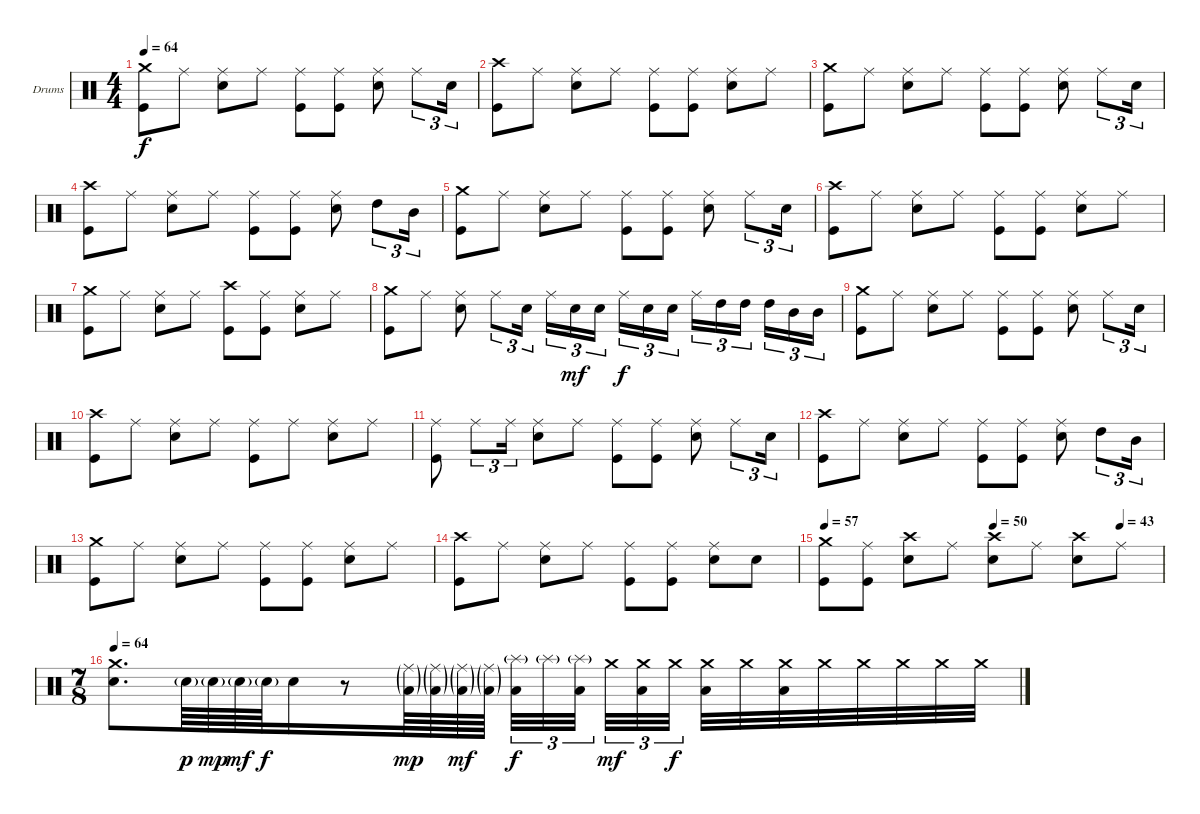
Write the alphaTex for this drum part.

\bracketExtendMode groupsimilarinstruments
\firstSystemTrackNameOrientation horizontal
\otherSystemsTrackNameOrientation horizontal
\track ("Drumkit" "Drums") {instrument percussion}
\staff {score}
\articulation defaults
\ts (4 4)
\tempo 64
\clef neutral
\ks c
("Crash medium (hit)" "Kick (hit)").8{dy f} "Ride (middle)".8 ("Ride (middle)" "Snare (hit) 2").8 "Ride (middle)".8 ("Ride (middle)" "Kick (hit)").8 ("Ride (middle)" "Kick (hit)").8 ("Ride (middle)" "Snare (hit) 2").8 "Ride (middle)".8{tu (3 2)} "Snare (hit) 2".16{tu (3 2)} |
("Crash high (hit)" "Kick (hit)").8 "Ride (middle)".8 ("Ride (middle)" "Snare (hit) 2").8 "Ride (middle)".8 ("Ride (middle)" "Kick (hit)").8 ("Ride (middle)" "Kick (hit)").8 ("Ride (middle)" "Snare (hit) 2").8 "Ride (middle)".8 |
("Crash medium (hit)" "Kick (hit)").8 "Ride (middle)".8 ("Ride (middle)" "Snare (hit) 2").8 "Ride (middle)".8 ("Ride (middle)" "Kick (hit)").8 ("Ride (middle)" "Kick (hit)").8 ("Ride (middle)" "Snare (hit) 2").8 "Ride (middle)".8{tu (3 2)} "Snare (hit) 2".16{tu (3 2)} |
("Crash high (hit)" "Kick (hit)").8 "Ride (middle)".8 ("Ride (middle)" "Snare (hit) 2").8 "Ride (middle)".8 ("Ride (middle)" "Kick (hit)").8 ("Ride (middle)" "Kick (hit)").8 ("Ride (middle)" "Snare (hit) 2").8 "High Tom (hit)".8{tu (3 2)} "Mid Tom (hit)".16{tu (3 2)} |
("Crash medium (hit)" "Kick (hit)").8 "Ride (middle)".8 ("Ride (middle)" "Snare (hit) 2").8 "Ride (middle)".8 ("Ride (middle)" "Kick (hit)").8 ("Ride (middle)" "Kick (hit)").8 ("Ride (middle)" "Snare (hit) 2").8 "Ride (middle)".8{tu (3 2)} "Snare (hit) 2".16{tu (3 2)} |
("Crash high (hit)" "Kick (hit)").8 "Ride (middle)".8 ("Ride (middle)" "Snare (hit) 2").8 "Ride (middle)".8 ("Ride (middle)" "Kick (hit)").8 ("Ride (middle)" "Kick (hit)").8 ("Ride (middle)" "Snare (hit) 2").8 "Ride (middle)".8 |
("Crash medium (hit)" "Kick (hit)").8 "Ride (middle)".8 ("Ride (middle)" "Snare (hit) 2").8 "Ride (middle)".8 ("Crash high (hit)" "Kick (hit)").8 ("Ride (middle)" "Kick (hit)").8 ("Ride (middle)" "Snare (hit) 2").8 "Ride (middle)".8 |
("Crash medium (hit)" "Kick (hit)").8 "Ride (middle)".8 ("Ride (middle)" "Snare (hit) 2").8 "Ride (middle)".8{tu (3 2)} "Snare (hit) 2".16{tu (3 2)} "Ride (middle)".16{tu (3 2)} "Snare (hit) 2".16{tu (3 2) dy mf} "Snare (hit) 2".16{tu (3 2)} "Ride (middle)".16{tu (3 2) dy f} "Snare (hit) 2".16{tu (3 2)} "Snare (hit) 2".16{tu (3 2)} "Ride (middle)".16{tu (3 2)} "High Tom (hit)".16{tu (3 2)} "High Tom (hit)".16{tu (3 2)} "High Tom (hit)".16{tu (3 2)} "Mid Tom (hit)".16{tu (3 2)} "Mid Tom (hit)".16{tu (3 2)} |
("Crash medium (hit)" "Kick (hit)").8 "Ride (middle)".8 ("Ride (middle)" "Snare (hit) 2").8 "Ride (middle)".8 ("Ride (middle)" "Kick (hit)").8 ("Ride (middle)" "Kick (hit)").8 ("Ride (middle)" "Snare (hit) 2").8 "Ride (middle)".8{tu (3 2)} "Snare (hit) 2".16{tu (3 2)} |
("Crash high (hit)" "Kick (hit)").8 "Ride (middle)".8 ("Ride (middle)" "Snare (hit) 2").8 "Ride (middle)".8 ("Ride (middle)" "Kick (hit)").8 "Ride (middle)".8 ("Ride (middle)" "Snare (hit) 2").8 "Ride (middle)".8 |
("Ride (middle)" "Kick (hit)").8 "Ride (middle)".8{tu (3 2)} "Ride (middle)".16{tu (3 2)} ("Ride (middle)" "Snare (hit) 2").8 "Ride (middle)".8 ("Ride (middle)" "Kick (hit)").8 ("Ride (middle)" "Kick (hit)").8 ("Ride (middle)" "Snare (hit) 2").8 "Ride (middle)".8{tu (3 2)} "Snare (hit) 2".16{tu (3 2)} |
("Crash high (hit)" "Kick (hit)").8 "Ride (middle)".8 ("Ride (middle)" "Snare (hit) 2").8 "Ride (middle)".8 ("Ride (middle)" "Kick (hit)").8 ("Ride (middle)" "Kick (hit)").8 ("Ride (middle)" "Snare (hit) 2").8 "High Tom (hit)".8{tu (3 2)} "Mid Tom (hit)".16{tu (3 2)} |
("Crash medium (hit)" "Kick (hit)").8 "Ride (middle)".8 ("Ride (middle)" "Snare (hit) 2").8 "Ride (middle)".8 ("Ride (middle)" "Kick (hit)").8 ("Ride (middle)" "Kick (hit)").8 ("Ride (middle)" "Snare (hit) 2").8 "Ride (middle)".8 |
("Crash high (hit)" "Kick (hit)").8 "Ride (middle)".8 ("Ride (middle)" "Snare (hit) 2").8 "Ride (middle)".8 ("Ride (middle)" "Kick (hit)").8 ("Ride (middle)" "Kick (hit)").8 ("Ride (middle)" "Snare (hit) 2").8 "Snare (hit) 2".8 |
\tempo 57
\tempo (50 0.5)
\tempo (43 0.875)
("Crash medium (hit)" "Kick (hit)").8 ("Ride (middle)" "Kick (hit)").8 ("Crash high (hit)" "Snare (hit) 2").8 "Ride (middle)".8 ("Crash high (hit)" "Snare (hit) 2").8 "Ride (middle)".8 ("Crash high (hit)" "Snare (hit) 2").8 "Ride (middle)".8 |
\ts (7 8)
\tempo 64
("Crash medium (hit)" "Snare (hit) 2").8{d} "Snare (hit) 2"{g}.64{dy p} "Snare (hit) 2"{g}.64{dy mp} "Snare (hit) 2"{g}.64{dy mf} "Snare (hit) 2"{g}.64{dy f} "Snare (hit) 2".16 r.8 ("Ride (middle)"{g} "Low Tom (hit)"{g}).64{dy mp} ("Ride (middle)"{g} "Low Tom (hit)"{g}).64 ("Ride (middle)"{g} "Low Tom (hit)"{g}).64{dy mf} ("Ride (middle)"{g} "Low Tom (hit)"{g}).64 ("Splash (hit)"{g} "Low Tom (hit)").32{tu (3 2) dy f} "Splash (hit)"{g}.32{tu (3 2)} ("Splash (hit)"{g} "Low Tom (hit)").32{tu (3 2)} "Crash medium (hit)".32{tu (3 2) dy mf} ("Crash medium (hit)" "Low Tom (hit)").32{tu (3 2)} "Crash medium (hit)".32{tu (3 2) dy f} ("Crash medium (hit)" "Low Tom (hit)").32 "Crash medium (hit)".32 ("Crash medium (hit)" "Low Tom (hit)").32 "Crash medium (hit)".32 "Crash medium (hit)".32 "Crash medium (hit)".32 "Crash medium (hit)".32 "Crash medium (hit)".32
